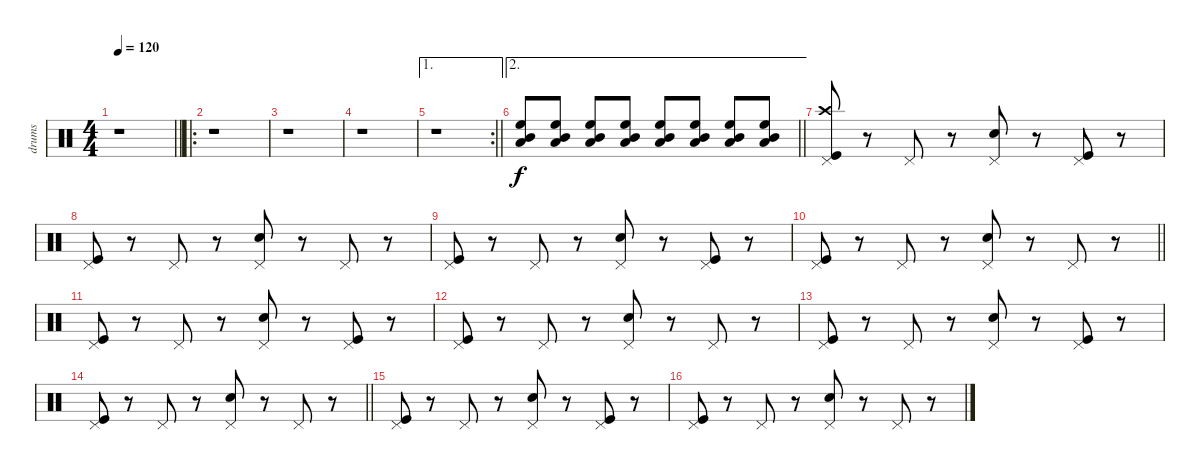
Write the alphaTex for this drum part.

\track ("drums" "drums") {instrument percussion}
\staff {score}
\articulation defaults
\ts (4 4)
\tempo 120
\clef neutral
\barLineRight lightlight
\ks c
r.1{dy f} |
\ro
r.1 |
r.1 |
r.1 |
\ae 1
\rc 2
\barLineRight lightlight
r.1 |
\ae 2
\barLineRight lightlight
("Low Tom (hit)" "High Floor Tom (hit)" "Mid Tom (hit)").8 ("Low Tom (hit)" "High Floor Tom (hit)" "Mid Tom (hit)").8 ("Low Tom (hit)" "High Floor Tom (hit)" "Mid Tom (hit)").8 ("Low Tom (hit)" "High Floor Tom (hit)" "Mid Tom (hit)").8 ("Low Tom (hit)" "High Floor Tom (hit)" "Mid Tom (hit)").8 ("Low Tom (hit)" "High Floor Tom (hit)" "Mid Tom (hit)").8 ("Low Tom (hit)" "High Floor Tom (hit)" "Mid Tom (hit)").8 ("Low Tom (hit)" "High Floor Tom (hit)" "Mid Tom (hit)").8 |
("Kick (hit)" "Crash high (hit)" "Pedal Hi-Hat (hit)").8 r.8 "Pedal Hi-Hat (hit)".8 r.8 ("Snare (hit) 2" "Pedal Hi-Hat (hit)").8 r.8 ("Kick (hit)" "Pedal Hi-Hat (hit)").8 r.8 |
("Kick (hit)" "Pedal Hi-Hat (hit)").8 r.8 "Pedal Hi-Hat (hit)".8 r.8 ("Snare (hit) 2" "Pedal Hi-Hat (hit)").8 r.8 "Pedal Hi-Hat (hit)".8 r.8 |
("Kick (hit)" "Pedal Hi-Hat (hit)").8 r.8 "Pedal Hi-Hat (hit)".8 r.8 ("Snare (hit) 2" "Pedal Hi-Hat (hit)").8 r.8 ("Kick (hit)" "Pedal Hi-Hat (hit)").8 r.8 |
\barLineRight lightlight
("Kick (hit)" "Pedal Hi-Hat (hit)").8 r.8 "Pedal Hi-Hat (hit)".8 r.8 ("Snare (hit) 2" "Pedal Hi-Hat (hit)").8 r.8 "Pedal Hi-Hat (hit)".8 r.8 |
("Kick (hit)" "Pedal Hi-Hat (hit)").8 r.8 "Pedal Hi-Hat (hit)".8 r.8 ("Snare (hit) 2" "Pedal Hi-Hat (hit)").8 r.8 ("Kick (hit)" "Pedal Hi-Hat (hit)").8 r.8 |
("Kick (hit)" "Pedal Hi-Hat (hit)").8 r.8 "Pedal Hi-Hat (hit)".8 r.8 ("Snare (hit) 2" "Pedal Hi-Hat (hit)").8 r.8 "Pedal Hi-Hat (hit)".8 r.8 |
("Kick (hit)" "Pedal Hi-Hat (hit)").8 r.8 "Pedal Hi-Hat (hit)".8 r.8 ("Snare (hit) 2" "Pedal Hi-Hat (hit)").8 r.8 ("Kick (hit)" "Pedal Hi-Hat (hit)").8 r.8 |
\barLineRight lightlight
("Kick (hit)" "Pedal Hi-Hat (hit)").8 r.8 "Pedal Hi-Hat (hit)".8 r.8 ("Snare (hit) 2" "Pedal Hi-Hat (hit)").8 r.8 "Pedal Hi-Hat (hit)".8 r.8 |
("Kick (hit)" "Pedal Hi-Hat (hit)").8 r.8 "Pedal Hi-Hat (hit)".8 r.8 ("Snare (hit) 2" "Pedal Hi-Hat (hit)").8 r.8 ("Kick (hit)" "Pedal Hi-Hat (hit)").8 r.8 |
("Kick (hit)" "Pedal Hi-Hat (hit)").8 r.8 "Pedal Hi-Hat (hit)".8 r.8 ("Snare (hit) 2" "Pedal Hi-Hat (hit)").8 r.8 "Pedal Hi-Hat (hit)".8 r.8
